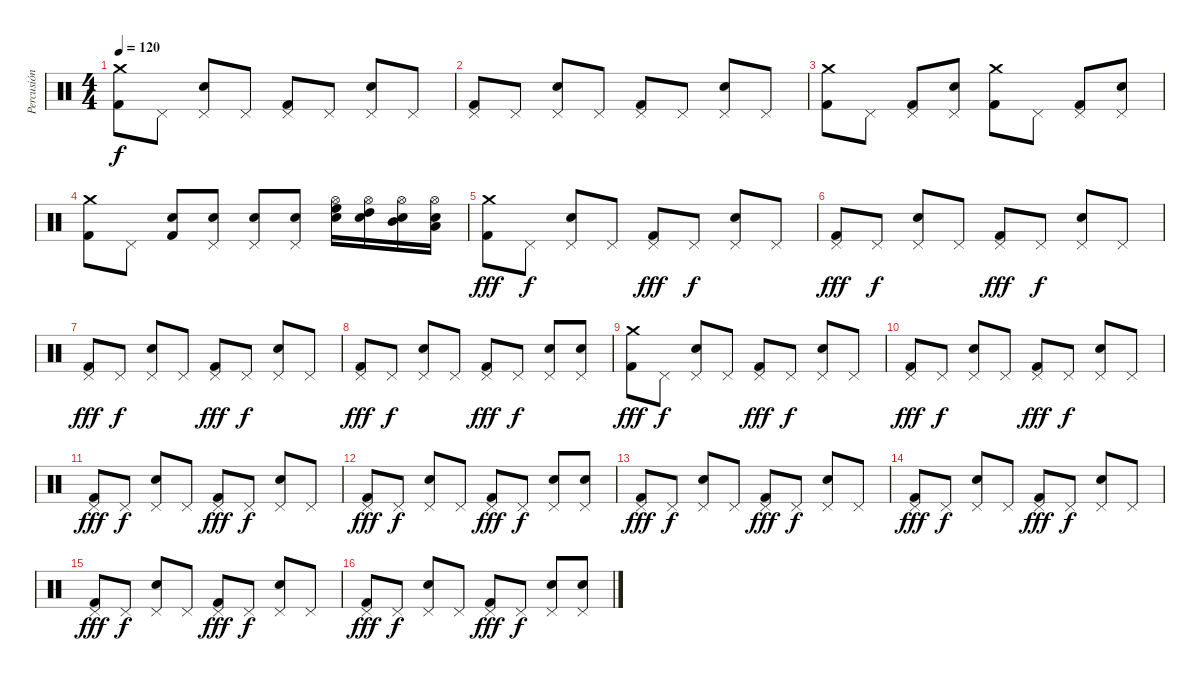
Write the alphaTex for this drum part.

\track ("Percusión" "Percusión") {instrument percussion}
\staff {score}
\articulation defaults
\ts (4 4)
\tempo 120
\clef neutral
\ks c
("Crash medium (hit)" "Kick (hit) 2").8{dy f} "Pedal Hi-Hat (hit)".8 ("Pedal Hi-Hat (hit)" "Electric Snare (hit)").8 "Pedal Hi-Hat (hit)".8 ("Pedal Hi-Hat (hit)" "Kick (hit) 2").8 "Pedal Hi-Hat (hit)".8 ("Pedal Hi-Hat (hit)" "Electric Snare (hit)").8 "Pedal Hi-Hat (hit)".8 |
("Pedal Hi-Hat (hit)" "Kick (hit) 2").8 "Pedal Hi-Hat (hit)".8 ("Pedal Hi-Hat (hit)" "Electric Snare (hit)").8 "Pedal Hi-Hat (hit)".8 ("Pedal Hi-Hat (hit)" "Kick (hit) 2").8 "Pedal Hi-Hat (hit)".8 ("Pedal Hi-Hat (hit)" "Electric Snare (hit)").8 "Pedal Hi-Hat (hit)".8 |
("Crash medium (hit)" "Kick (hit) 2").8 "Pedal Hi-Hat (hit)".8 ("Pedal Hi-Hat (hit)" "Kick (hit) 2").8 ("Pedal Hi-Hat (hit)" "Electric Snare (hit)").8 ("Crash medium (hit)" "Kick (hit) 2").8 "Pedal Hi-Hat (hit)".8 ("Pedal Hi-Hat (hit)" "Kick (hit) 2").8 ("Pedal Hi-Hat (hit)" "Electric Snare (hit)").8 |
("Crash medium (hit)" "Kick (hit) 2").8 "Pedal Hi-Hat (hit)".8 ("Electric Snare (hit)" "Kick (hit) 2").8 ("Pedal Hi-Hat (hit)" "Electric Snare (hit)").8 ("Pedal Hi-Hat (hit)" "Electric Snare (hit)").8 ("Pedal Hi-Hat (hit)" "Electric Snare (hit)").8 ("Hi-Hat (open)" "High Floor Tom (hit)" "Electric Snare (hit)").16 ("Hi-Hat (open)" "High Tom (hit)" "Electric Snare (hit)").16 ("Hi-Hat (open)" "Mid Tom (hit)" "Electric Snare (hit)").16 ("Hi-Hat (open)" "Low Tom (hit)" "Electric Snare (hit)").16 |
("Crash medium (hit)" "Kick (hit) 2").8{dy fff} "Pedal Hi-Hat (hit)".8{dy f} ("Pedal Hi-Hat (hit)" "Electric Snare (hit)").8 "Pedal Hi-Hat (hit)".8 ("Pedal Hi-Hat (hit)" "Kick (hit) 2").8{dy fff} "Pedal Hi-Hat (hit)".8{dy f} ("Pedal Hi-Hat (hit)" "Electric Snare (hit)").8 "Pedal Hi-Hat (hit)".8 |
("Pedal Hi-Hat (hit)" "Kick (hit) 2").8{dy fff} "Pedal Hi-Hat (hit)".8{dy f} ("Pedal Hi-Hat (hit)" "Electric Snare (hit)").8 "Pedal Hi-Hat (hit)".8 ("Pedal Hi-Hat (hit)" "Kick (hit) 2").8{dy fff} "Pedal Hi-Hat (hit)".8{dy f} ("Pedal Hi-Hat (hit)" "Electric Snare (hit)").8 "Pedal Hi-Hat (hit)".8 |
("Pedal Hi-Hat (hit)" "Kick (hit) 2").8{dy fff} "Pedal Hi-Hat (hit)".8{dy f} ("Pedal Hi-Hat (hit)" "Electric Snare (hit)").8 "Pedal Hi-Hat (hit)".8 ("Pedal Hi-Hat (hit)" "Kick (hit) 2").8{dy fff} "Pedal Hi-Hat (hit)".8{dy f} ("Pedal Hi-Hat (hit)" "Electric Snare (hit)").8 "Pedal Hi-Hat (hit)".8 |
("Pedal Hi-Hat (hit)" "Kick (hit) 2").8{dy fff} "Pedal Hi-Hat (hit)".8{dy f} ("Pedal Hi-Hat (hit)" "Electric Snare (hit)").8 "Pedal Hi-Hat (hit)".8 ("Pedal Hi-Hat (hit)" "Kick (hit) 2").8{dy fff} "Pedal Hi-Hat (hit)".8{dy f} ("Pedal Hi-Hat (hit)" "Electric Snare (hit)").8 ("Pedal Hi-Hat (hit)" "Electric Snare (hit)").8 |
("Crash medium (hit)" "Kick (hit) 2").8{dy fff} "Pedal Hi-Hat (hit)".8{dy f} ("Pedal Hi-Hat (hit)" "Electric Snare (hit)").8 "Pedal Hi-Hat (hit)".8 ("Pedal Hi-Hat (hit)" "Kick (hit) 2").8{dy fff} "Pedal Hi-Hat (hit)".8{dy f} ("Pedal Hi-Hat (hit)" "Electric Snare (hit)").8 "Pedal Hi-Hat (hit)".8 |
("Pedal Hi-Hat (hit)" "Kick (hit) 2").8{dy fff} "Pedal Hi-Hat (hit)".8{dy f} ("Pedal Hi-Hat (hit)" "Electric Snare (hit)").8 "Pedal Hi-Hat (hit)".8 ("Pedal Hi-Hat (hit)" "Kick (hit) 2").8{dy fff} "Pedal Hi-Hat (hit)".8{dy f} ("Pedal Hi-Hat (hit)" "Electric Snare (hit)").8 "Pedal Hi-Hat (hit)".8 |
("Pedal Hi-Hat (hit)" "Kick (hit) 2").8{dy fff} "Pedal Hi-Hat (hit)".8{dy f} ("Pedal Hi-Hat (hit)" "Electric Snare (hit)").8 "Pedal Hi-Hat (hit)".8 ("Pedal Hi-Hat (hit)" "Kick (hit) 2").8{dy fff} "Pedal Hi-Hat (hit)".8{dy f} ("Pedal Hi-Hat (hit)" "Electric Snare (hit)").8 "Pedal Hi-Hat (hit)".8 |
("Pedal Hi-Hat (hit)" "Kick (hit) 2").8{dy fff} "Pedal Hi-Hat (hit)".8{dy f} ("Pedal Hi-Hat (hit)" "Electric Snare (hit)").8 "Pedal Hi-Hat (hit)".8 ("Pedal Hi-Hat (hit)" "Kick (hit) 2").8{dy fff} "Pedal Hi-Hat (hit)".8{dy f} ("Pedal Hi-Hat (hit)" "Electric Snare (hit)").8 ("Pedal Hi-Hat (hit)" "Electric Snare (hit)").8 |
("Pedal Hi-Hat (hit)" "Kick (hit) 2").8{dy fff} "Pedal Hi-Hat (hit)".8{dy f} ("Pedal Hi-Hat (hit)" "Electric Snare (hit)").8 "Pedal Hi-Hat (hit)".8 ("Pedal Hi-Hat (hit)" "Kick (hit) 2").8{dy fff} "Pedal Hi-Hat (hit)".8{dy f} ("Pedal Hi-Hat (hit)" "Electric Snare (hit)").8 "Pedal Hi-Hat (hit)".8 |
("Pedal Hi-Hat (hit)" "Kick (hit) 2").8{dy fff} "Pedal Hi-Hat (hit)".8{dy f} ("Pedal Hi-Hat (hit)" "Electric Snare (hit)").8 "Pedal Hi-Hat (hit)".8 ("Pedal Hi-Hat (hit)" "Kick (hit) 2").8{dy fff} "Pedal Hi-Hat (hit)".8{dy f} ("Pedal Hi-Hat (hit)" "Electric Snare (hit)").8 "Pedal Hi-Hat (hit)".8 |
("Pedal Hi-Hat (hit)" "Kick (hit) 2").8{dy fff} "Pedal Hi-Hat (hit)".8{dy f} ("Pedal Hi-Hat (hit)" "Electric Snare (hit)").8 "Pedal Hi-Hat (hit)".8 ("Pedal Hi-Hat (hit)" "Kick (hit) 2").8{dy fff} "Pedal Hi-Hat (hit)".8{dy f} ("Pedal Hi-Hat (hit)" "Electric Snare (hit)").8 "Pedal Hi-Hat (hit)".8 |
("Pedal Hi-Hat (hit)" "Kick (hit) 2").8{dy fff} "Pedal Hi-Hat (hit)".8{dy f} ("Pedal Hi-Hat (hit)" "Electric Snare (hit)").8 "Pedal Hi-Hat (hit)".8 ("Pedal Hi-Hat (hit)" "Kick (hit) 2").8{dy fff} "Pedal Hi-Hat (hit)".8{dy f} ("Pedal Hi-Hat (hit)" "Electric Snare (hit)").8 ("Pedal Hi-Hat (hit)" "Electric Snare (hit)").8
